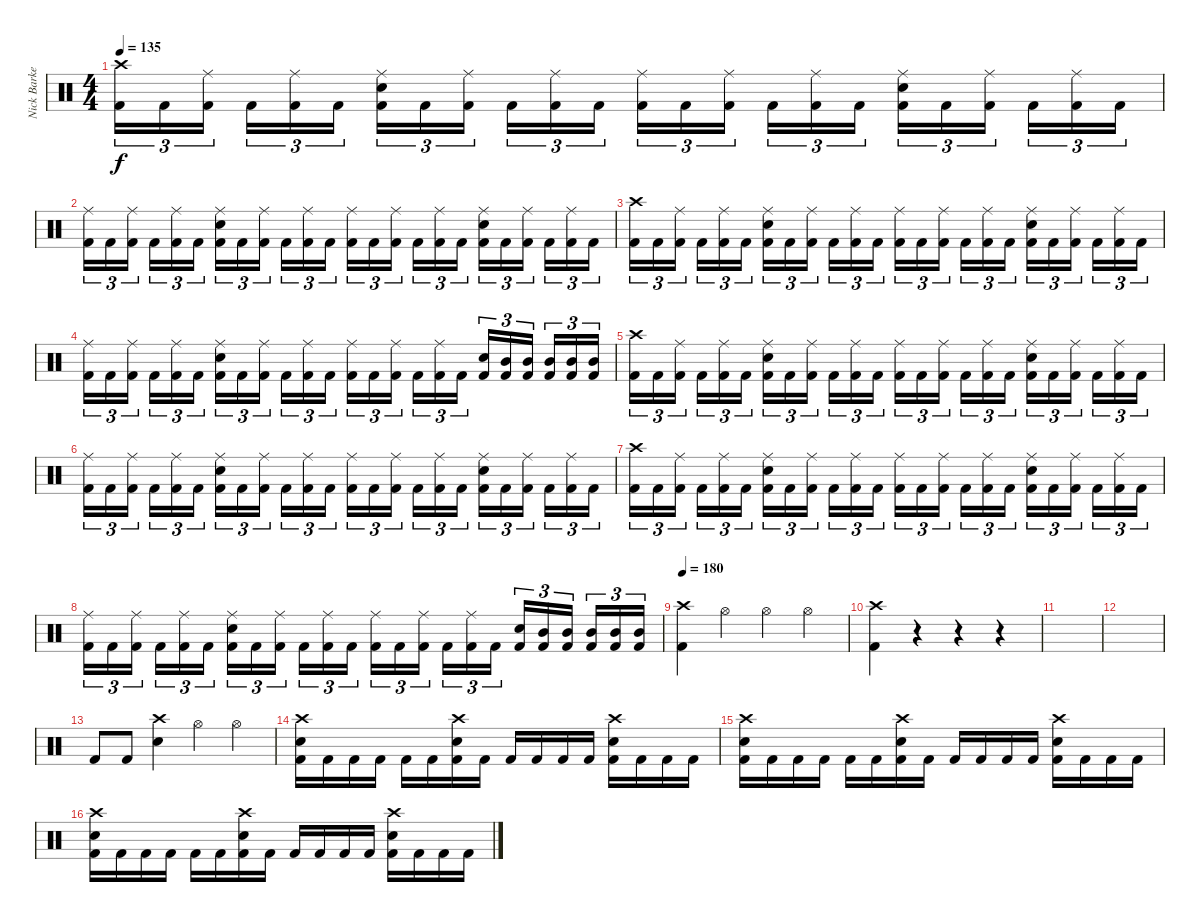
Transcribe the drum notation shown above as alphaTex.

\track ("Nick Barker" "Nick Barke") {instrument percussion}
\staff {score}
\articulation defaults
\ts (4 4)
\section ("" "")
\tempo 135
\clef neutral
\ks c
("Crash high (hit)" "Kick (hit) 2").16{tu (3 2) dy f} "Kick (hit) 2".16{tu (3 2)} ("Ride (middle)" "Kick (hit) 2").16{tu (3 2)} "Kick (hit) 2".16{tu (3 2)} ("Ride (middle)" "Kick (hit) 2").16{tu (3 2)} "Kick (hit) 2".16{tu (3 2)} ("Ride (middle)" "Electric Snare (hit)" "Kick (hit) 2").16{tu (3 2)} "Kick (hit) 2".16{tu (3 2)} ("Ride (middle)" "Kick (hit) 2").16{tu (3 2)} "Kick (hit) 2".16{tu (3 2)} ("Ride (middle)" "Kick (hit) 2").16{tu (3 2)} "Kick (hit) 2".16{tu (3 2)} ("Ride (middle)" "Kick (hit) 2").16{tu (3 2)} "Kick (hit) 2".16{tu (3 2)} ("Ride (middle)" "Kick (hit) 2").16{tu (3 2)} "Kick (hit) 2".16{tu (3 2)} ("Ride (middle)" "Kick (hit) 2").16{tu (3 2)} "Kick (hit) 2".16{tu (3 2)} ("Ride (middle)" "Electric Snare (hit)" "Kick (hit) 2").16{tu (3 2)} "Kick (hit) 2".16{tu (3 2)} ("Ride (middle)" "Kick (hit) 2").16{tu (3 2)} "Kick (hit) 2".16{tu (3 2)} ("Ride (middle)" "Kick (hit) 2").16{tu (3 2)} "Kick (hit) 2".16{tu (3 2)} |
("Ride (middle)" "Kick (hit) 2").16{tu (3 2)} "Kick (hit) 2".16{tu (3 2)} ("Ride (middle)" "Kick (hit) 2").16{tu (3 2)} "Kick (hit) 2".16{tu (3 2)} ("Ride (middle)" "Kick (hit) 2").16{tu (3 2)} "Kick (hit) 2".16{tu (3 2)} ("Ride (middle)" "Electric Snare (hit)" "Kick (hit) 2").16{tu (3 2)} "Kick (hit) 2".16{tu (3 2)} ("Ride (middle)" "Kick (hit) 2").16{tu (3 2)} "Kick (hit) 2".16{tu (3 2)} ("Ride (middle)" "Kick (hit) 2").16{tu (3 2)} "Kick (hit) 2".16{tu (3 2)} ("Ride (middle)" "Kick (hit) 2").16{tu (3 2)} "Kick (hit) 2".16{tu (3 2)} ("Ride (middle)" "Kick (hit) 2").16{tu (3 2)} "Kick (hit) 2".16{tu (3 2)} ("Ride (middle)" "Kick (hit) 2").16{tu (3 2)} "Kick (hit) 2".16{tu (3 2)} ("Ride (middle)" "Electric Snare (hit)" "Kick (hit) 2").16{tu (3 2)} "Kick (hit) 2".16{tu (3 2)} ("Ride (middle)" "Kick (hit) 2").16{tu (3 2)} "Kick (hit) 2".16{tu (3 2)} ("Ride (middle)" "Kick (hit) 2").16{tu (3 2)} "Kick (hit) 2".16{tu (3 2)} |
("Crash high (hit)" "Kick (hit) 2").16{tu (3 2)} "Kick (hit) 2".16{tu (3 2)} ("Ride (middle)" "Kick (hit) 2").16{tu (3 2)} "Kick (hit) 2".16{tu (3 2)} ("Ride (middle)" "Kick (hit) 2").16{tu (3 2)} "Kick (hit) 2".16{tu (3 2)} ("Ride (middle)" "Electric Snare (hit)" "Kick (hit) 2").16{tu (3 2)} "Kick (hit) 2".16{tu (3 2)} ("Ride (middle)" "Kick (hit) 2").16{tu (3 2)} "Kick (hit) 2".16{tu (3 2)} ("Ride (middle)" "Kick (hit) 2").16{tu (3 2)} "Kick (hit) 2".16{tu (3 2)} ("Ride (middle)" "Kick (hit) 2").16{tu (3 2)} "Kick (hit) 2".16{tu (3 2)} ("Ride (middle)" "Kick (hit) 2").16{tu (3 2)} "Kick (hit) 2".16{tu (3 2)} ("Ride (middle)" "Kick (hit) 2").16{tu (3 2)} "Kick (hit) 2".16{tu (3 2)} ("Ride (middle)" "Electric Snare (hit)" "Kick (hit) 2").16{tu (3 2)} "Kick (hit) 2".16{tu (3 2)} ("Ride (middle)" "Kick (hit) 2").16{tu (3 2)} "Kick (hit) 2".16{tu (3 2)} ("Ride (middle)" "Kick (hit) 2").16{tu (3 2)} "Kick (hit) 2".16{tu (3 2)} |
("Ride (middle)" "Kick (hit) 2").16{tu (3 2)} "Kick (hit) 2".16{tu (3 2)} ("Ride (middle)" "Kick (hit) 2").16{tu (3 2)} "Kick (hit) 2".16{tu (3 2)} ("Ride (middle)" "Kick (hit) 2").16{tu (3 2)} "Kick (hit) 2".16{tu (3 2)} ("Ride (middle)" "Electric Snare (hit)" "Kick (hit) 2").16{tu (3 2)} "Kick (hit) 2".16{tu (3 2)} ("Ride (middle)" "Kick (hit) 2").16{tu (3 2)} "Kick (hit) 2".16{tu (3 2)} ("Ride (middle)" "Kick (hit) 2").16{tu (3 2)} "Kick (hit) 2".16{tu (3 2)} ("Ride (middle)" "Kick (hit) 2").16{tu (3 2)} "Kick (hit) 2".16{tu (3 2)} ("Ride (middle)" "Kick (hit) 2").16{tu (3 2)} "Kick (hit) 2".16{tu (3 2)} ("Ride (middle)" "Kick (hit) 2").16{tu (3 2)} "Kick (hit) 2".16{tu (3 2)} ("Electric Snare (hit)" "Kick (hit) 2").16{tu (3 2)} ("Mid Tom (hit)" "Kick (hit) 2").16{tu (3 2)} ("Mid Tom (hit)" "Kick (hit) 2").16{tu (3 2)} ("Mid Tom (hit)" "Kick (hit) 2").16{tu (3 2)} ("Mid Tom (hit)" "Kick (hit) 2").16{tu (3 2)} ("Mid Tom (hit)" "Kick (hit) 2").16{tu (3 2)} |
("Crash high (hit)" "Kick (hit) 2").16{tu (3 2)} "Kick (hit) 2".16{tu (3 2)} ("Ride (middle)" "Kick (hit) 2").16{tu (3 2)} "Kick (hit) 2".16{tu (3 2)} ("Ride (middle)" "Kick (hit) 2").16{tu (3 2)} "Kick (hit) 2".16{tu (3 2)} ("Ride (middle)" "Electric Snare (hit)" "Kick (hit) 2").16{tu (3 2)} "Kick (hit) 2".16{tu (3 2)} ("Ride (middle)" "Kick (hit) 2").16{tu (3 2)} "Kick (hit) 2".16{tu (3 2)} ("Ride (middle)" "Kick (hit) 2").16{tu (3 2)} "Kick (hit) 2".16{tu (3 2)} ("Ride (middle)" "Kick (hit) 2").16{tu (3 2)} "Kick (hit) 2".16{tu (3 2)} ("Ride (middle)" "Kick (hit) 2").16{tu (3 2)} "Kick (hit) 2".16{tu (3 2)} ("Ride (middle)" "Kick (hit) 2").16{tu (3 2)} "Kick (hit) 2".16{tu (3 2)} ("Ride (middle)" "Electric Snare (hit)" "Kick (hit) 2").16{tu (3 2)} "Kick (hit) 2".16{tu (3 2)} ("Ride (middle)" "Kick (hit) 2").16{tu (3 2)} "Kick (hit) 2".16{tu (3 2)} ("Ride (middle)" "Kick (hit) 2").16{tu (3 2)} "Kick (hit) 2".16{tu (3 2)} |
("Ride (middle)" "Kick (hit) 2").16{tu (3 2)} "Kick (hit) 2".16{tu (3 2)} ("Ride (middle)" "Kick (hit) 2").16{tu (3 2)} "Kick (hit) 2".16{tu (3 2)} ("Ride (middle)" "Kick (hit) 2").16{tu (3 2)} "Kick (hit) 2".16{tu (3 2)} ("Ride (middle)" "Electric Snare (hit)" "Kick (hit) 2").16{tu (3 2)} "Kick (hit) 2".16{tu (3 2)} ("Ride (middle)" "Kick (hit) 2").16{tu (3 2)} "Kick (hit) 2".16{tu (3 2)} ("Ride (middle)" "Kick (hit) 2").16{tu (3 2)} "Kick (hit) 2".16{tu (3 2)} ("Ride (middle)" "Kick (hit) 2").16{tu (3 2)} "Kick (hit) 2".16{tu (3 2)} ("Ride (middle)" "Kick (hit) 2").16{tu (3 2)} "Kick (hit) 2".16{tu (3 2)} ("Ride (middle)" "Kick (hit) 2").16{tu (3 2)} "Kick (hit) 2".16{tu (3 2)} ("Ride (middle)" "Electric Snare (hit)" "Kick (hit) 2").16{tu (3 2)} "Kick (hit) 2".16{tu (3 2)} ("Ride (middle)" "Kick (hit) 2").16{tu (3 2)} "Kick (hit) 2".16{tu (3 2)} ("Ride (middle)" "Kick (hit) 2").16{tu (3 2)} "Kick (hit) 2".16{tu (3 2)} |
("Crash high (hit)" "Kick (hit) 2").16{tu (3 2)} "Kick (hit) 2".16{tu (3 2)} ("Ride (middle)" "Kick (hit) 2").16{tu (3 2)} "Kick (hit) 2".16{tu (3 2)} ("Ride (middle)" "Kick (hit) 2").16{tu (3 2)} "Kick (hit) 2".16{tu (3 2)} ("Ride (middle)" "Electric Snare (hit)" "Kick (hit) 2").16{tu (3 2)} "Kick (hit) 2".16{tu (3 2)} ("Ride (middle)" "Kick (hit) 2").16{tu (3 2)} "Kick (hit) 2".16{tu (3 2)} ("Ride (middle)" "Kick (hit) 2").16{tu (3 2)} "Kick (hit) 2".16{tu (3 2)} ("Ride (middle)" "Kick (hit) 2").16{tu (3 2)} "Kick (hit) 2".16{tu (3 2)} ("Ride (middle)" "Kick (hit) 2").16{tu (3 2)} "Kick (hit) 2".16{tu (3 2)} ("Ride (middle)" "Kick (hit) 2").16{tu (3 2)} "Kick (hit) 2".16{tu (3 2)} ("Ride (middle)" "Electric Snare (hit)" "Kick (hit) 2").16{tu (3 2)} "Kick (hit) 2".16{tu (3 2)} ("Ride (middle)" "Kick (hit) 2").16{tu (3 2)} "Kick (hit) 2".16{tu (3 2)} ("Ride (middle)" "Kick (hit) 2").16{tu (3 2)} "Kick (hit) 2".16{tu (3 2)} |
("Ride (middle)" "Kick (hit) 2").16{tu (3 2)} "Kick (hit) 2".16{tu (3 2)} ("Ride (middle)" "Kick (hit) 2").16{tu (3 2)} "Kick (hit) 2".16{tu (3 2)} ("Ride (middle)" "Kick (hit) 2").16{tu (3 2)} "Kick (hit) 2".16{tu (3 2)} ("Ride (middle)" "Electric Snare (hit)" "Kick (hit) 2").16{tu (3 2)} "Kick (hit) 2".16{tu (3 2)} ("Ride (middle)" "Kick (hit) 2").16{tu (3 2)} "Kick (hit) 2".16{tu (3 2)} ("Ride (middle)" "Kick (hit) 2").16{tu (3 2)} "Kick (hit) 2".16{tu (3 2)} ("Ride (middle)" "Kick (hit) 2").16{tu (3 2)} "Kick (hit) 2".16{tu (3 2)} ("Ride (middle)" "Kick (hit) 2").16{tu (3 2)} "Kick (hit) 2".16{tu (3 2)} ("Ride (middle)" "Kick (hit) 2").16{tu (3 2)} "Kick (hit) 2".16{tu (3 2)} ("Electric Snare (hit)" "Kick (hit) 2").16{tu (3 2)} ("Mid Tom (hit)" "Kick (hit) 2").16{tu (3 2)} ("Mid Tom (hit)" "Kick (hit) 2").16{tu (3 2)} ("Mid Tom (hit)" "Kick (hit) 2").16{tu (3 2)} ("Mid Tom (hit)" "Kick (hit) 2").16{tu (3 2)} ("Mid Tom (hit)" "Kick (hit) 2").16{tu (3 2)} |
\section ("" "")
\tempo 180
("Crash high (hit)" "Kick (hit) 2").4 "Hi-Hat (open)".4 "Hi-Hat (open)".4 "Hi-Hat (open)".4 |
\section ("" "")
("Crash high (hit)" "Kick (hit) 2").4 r.4{volume 0} r.4 r.4 |
|
|
"Kick (hit) 2".8{volume 16} "Kick (hit) 2".8 ("Crash high (hit)" "Electric Snare (hit)").4 "Hi-Hat (open)".4 "Hi-Hat (open)".4 |
("Crash high (hit)" "Electric Snare (hit)" "Kick (hit) 2").16 "Kick (hit) 2".16 "Kick (hit) 2".16 "Kick (hit) 2".16 "Kick (hit) 2".16 "Kick (hit) 2".16 ("Crash high (hit)" "Electric Snare (hit)" "Kick (hit) 2").16 "Kick (hit) 2".16 "Kick (hit) 2".16 "Kick (hit) 2".16 "Kick (hit) 2".16 "Kick (hit) 2".16 ("Crash high (hit)" "Electric Snare (hit)" "Kick (hit) 2").16 "Kick (hit) 2".16 "Kick (hit) 2".16 "Kick (hit) 2".16 |
("Crash high (hit)" "Electric Snare (hit)" "Kick (hit) 2").16 "Kick (hit) 2".16 "Kick (hit) 2".16 "Kick (hit) 2".16 "Kick (hit) 2".16 "Kick (hit) 2".16 ("Crash high (hit)" "Electric Snare (hit)" "Kick (hit) 2").16 "Kick (hit) 2".16 "Kick (hit) 2".16 "Kick (hit) 2".16 "Kick (hit) 2".16 "Kick (hit) 2".16 ("Crash high (hit)" "Electric Snare (hit)" "Kick (hit) 2").16 "Kick (hit) 2".16 "Kick (hit) 2".16 "Kick (hit) 2".16 |
("Crash high (hit)" "Electric Snare (hit)" "Kick (hit) 2").16 "Kick (hit) 2".16 "Kick (hit) 2".16 "Kick (hit) 2".16 "Kick (hit) 2".16 "Kick (hit) 2".16 ("Crash high (hit)" "Electric Snare (hit)" "Kick (hit) 2").16 "Kick (hit) 2".16 "Kick (hit) 2".16 "Kick (hit) 2".16 "Kick (hit) 2".16 "Kick (hit) 2".16 ("Crash high (hit)" "Electric Snare (hit)" "Kick (hit) 2").16 "Kick (hit) 2".16 "Kick (hit) 2".16 "Kick (hit) 2".16
